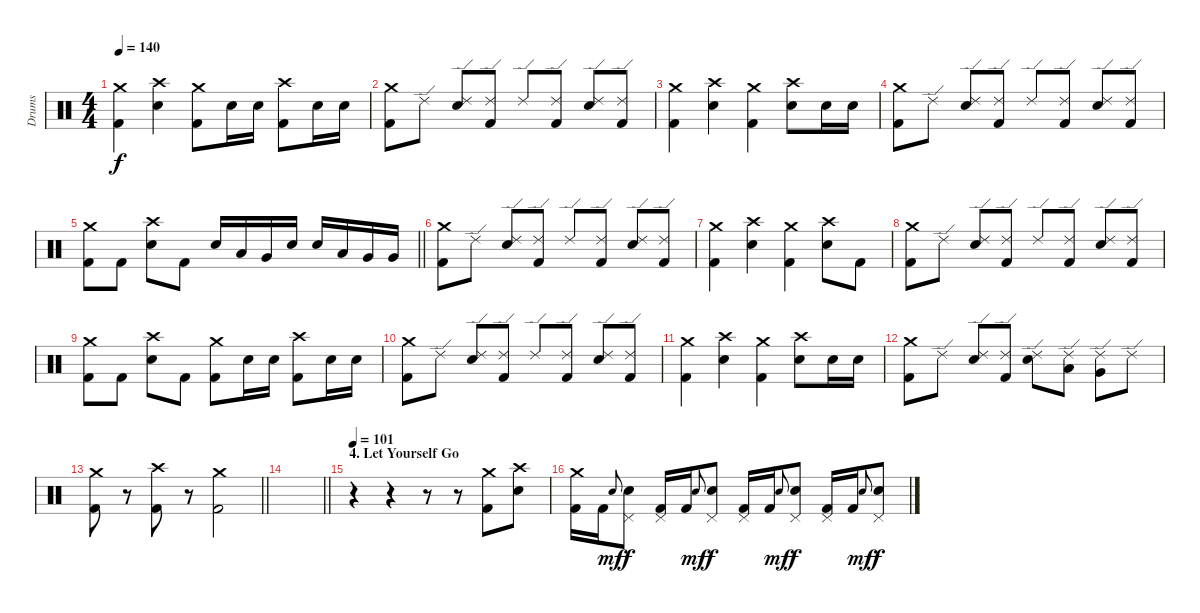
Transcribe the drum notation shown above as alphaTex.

\track ("Drums" "Drums") {instrument percussion}
\staff {score}
\articulation defaults
\ts (4 4)
\tempo 140
\clef neutral
\ks c
("Crash medium (hit)" "Kick (hit) 2").4{dy f} ("Crash high (hit)" "Electric Snare (hit)").4 ("Crash medium (hit)" "Kick (hit) 2").8 "Electric Snare (hit)".16 "Electric Snare (hit)".16 ("Crash high (hit)" "Kick (hit) 2").8 "Electric Snare (hit)".16 "Electric Snare (hit)".16 |
("Crash medium (hit)" "Kick (hit) 2").8 "Ride (edge) 2".8 ("Ride (edge) 2" "Electric Snare (hit)").8 ("Ride (edge) 2" "Kick (hit) 2").8 "Ride (edge) 2".8 ("Ride (edge) 2" "Kick (hit) 2").8 ("Ride (edge) 2" "Electric Snare (hit)").8 ("Ride (edge) 2" "Kick (hit) 2").8 |
("Crash medium (hit)" "Kick (hit) 2").4 ("Crash high (hit)" "Electric Snare (hit)").4 ("Crash medium (hit)" "Kick (hit) 2").4 ("Crash high (hit)" "Electric Snare (hit)").8 "Electric Snare (hit)".16 "Electric Snare (hit)".16 |
("Crash medium (hit)" "Kick (hit) 2").8 "Ride (edge) 2".8 ("Ride (edge) 2" "Electric Snare (hit)").8 ("Ride (edge) 2" "Kick (hit) 2").8 "Ride (edge) 2".8 ("Ride (edge) 2" "Kick (hit) 2").8 ("Ride (edge) 2" "Electric Snare (hit)").8 ("Ride (edge) 2" "Kick (hit) 2").8 |
\barLineRight lightlight
("Crash medium (hit)" "Kick (hit) 2").8 "Kick (hit) 2".8 ("Crash high (hit)" "Electric Snare (hit)").8 "Kick (hit) 2".8 "Electric Snare (hit)".16 "Low Tom (hit)".16 "Very Low Tom (hit)".16 "Electric Snare (hit)".16 "Electric Snare (hit)".16 "Low Tom (hit)".16 "Very Low Tom (hit)".16 "Very Low Tom (hit)".16 |
("Crash medium (hit)" "Kick (hit) 2").8 "Ride (edge) 2".8 ("Ride (edge) 2" "Electric Snare (hit)").8 ("Ride (edge) 2" "Kick (hit) 2").8 "Ride (edge) 2".8 ("Ride (edge) 2" "Kick (hit) 2").8 ("Ride (edge) 2" "Electric Snare (hit)").8 ("Ride (edge) 2" "Kick (hit) 2").8 |
("Crash medium (hit)" "Kick (hit) 2").4 ("Crash high (hit)" "Electric Snare (hit)").4 ("Crash medium (hit)" "Kick (hit) 2").4 ("Crash high (hit)" "Electric Snare (hit)").8 "Kick (hit) 2".8 |
("Crash medium (hit)" "Kick (hit) 2").8 "Ride (edge) 2".8 ("Ride (edge) 2" "Electric Snare (hit)").8 ("Ride (edge) 2" "Kick (hit) 2").8 "Ride (edge) 2".8 ("Ride (edge) 2" "Kick (hit) 2").8 ("Ride (edge) 2" "Electric Snare (hit)").8 ("Ride (edge) 2" "Kick (hit) 2").8 |
("Crash medium (hit)" "Kick (hit) 2").8 "Kick (hit) 2".8 ("Crash high (hit)" "Electric Snare (hit)").8 "Kick (hit) 2".8 ("Crash medium (hit)" "Kick (hit) 2").8 "Electric Snare (hit)".16 "Electric Snare (hit)".16 ("Crash high (hit)" "Kick (hit) 2").8 "Electric Snare (hit)".16 "Electric Snare (hit)".16 |
("Crash medium (hit)" "Kick (hit) 2").8 "Ride (edge) 2".8 ("Ride (edge) 2" "Electric Snare (hit)").8 ("Ride (edge) 2" "Kick (hit) 2").8 "Ride (edge) 2".8 ("Ride (edge) 2" "Kick (hit) 2").8 ("Ride (edge) 2" "Electric Snare (hit)").8 ("Ride (edge) 2" "Kick (hit) 2").8 |
("Crash medium (hit)" "Kick (hit) 2").4 ("Crash high (hit)" "Electric Snare (hit)").4 ("Crash medium (hit)" "Kick (hit) 2").4 ("Crash high (hit)" "Electric Snare (hit)").8 "Electric Snare (hit)".16 "Electric Snare (hit)".16 |
("Crash medium (hit)" "Kick (hit) 2").8 "Ride (edge) 2".8 ("Ride (edge) 2" "Electric Snare (hit)").8 ("Ride (edge) 2" "Kick (hit) 2").8 ("Ride (edge) 2" "Electric Snare (hit)").8 ("Ride (edge) 2" "Low Tom (hit)").8 ("Ride (edge) 2" "Very Low Tom (hit)").8 "Ride (edge) 2".8 |
\barLineRight lightlight
("Crash medium (hit)" "Kick (hit) 2").8 r.8 ("Crash high (hit)" "Kick (hit) 2").8 r.8 ("Crash medium (hit)" "Kick (hit) 2").2 |
\barLineRight lightlight
|
\section ("" "4. Let Yourself Go")
\tempo 101
r.4 r.4 r.8 r.8 ("Crash medium (hit)" "Kick (hit) 2").8 ("Crash high (hit)" "Electric Snare (hit)").8 |
("Crash medium (hit)" "Kick (hit) 2").16 "Kick (hit) 2".16 "Electric Snare (hit)".8{gr onbeat dy mf} ("Pedal Hi-Hat (hit)" "Electric Snare (hit)").8{dy f} ("Pedal Hi-Hat (hit)" "Kick (hit) 2").16 "Kick (hit) 2".16 "Electric Snare (hit)".8{gr onbeat dy mf} ("Pedal Hi-Hat (hit)" "Electric Snare (hit)").8{dy f} ("Pedal Hi-Hat (hit)" "Kick (hit) 2").16 "Kick (hit) 2".16 "Electric Snare (hit)".8{gr onbeat dy mf} ("Pedal Hi-Hat (hit)" "Electric Snare (hit)").8{dy f} ("Pedal Hi-Hat (hit)" "Kick (hit) 2").16 "Kick (hit) 2".16 "Electric Snare (hit)".8{gr onbeat dy mf} ("Pedal Hi-Hat (hit)" "Electric Snare (hit)").8{dy f}
